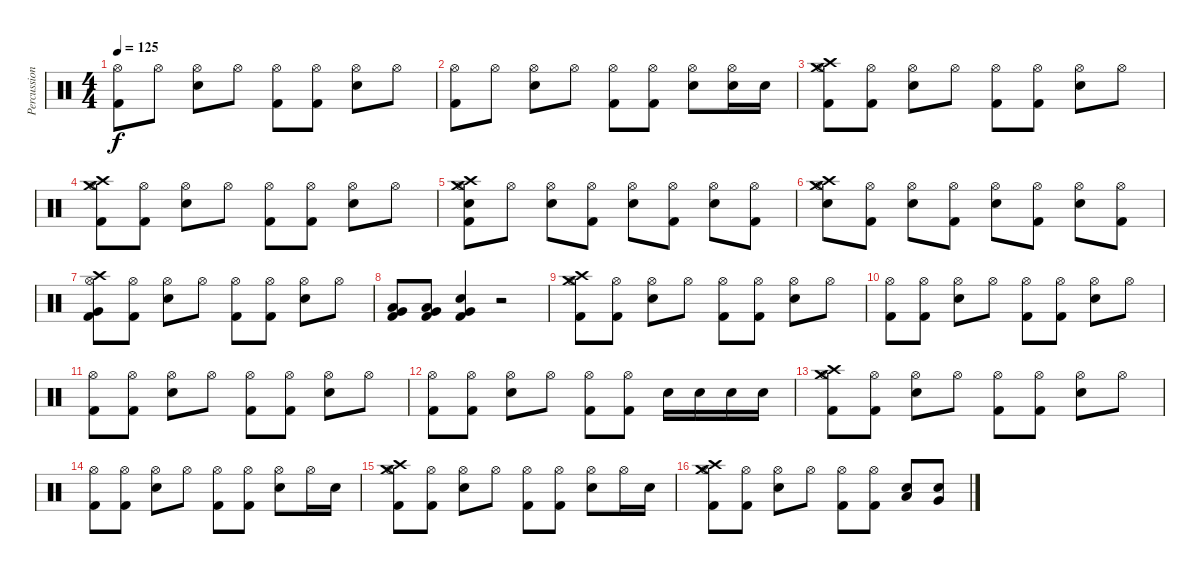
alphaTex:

\track ("Percussions" "Percussion") {instrument percussion}
\staff {score}
\articulation defaults
\ts (4 4)
\tempo 125
\clef neutral
\ks c
("Hi-Hat (open)" "Kick (hit) 2").8{dy f} "Hi-Hat (open)".8 ("Hi-Hat (open)" "Electric Snare (hit)").8 "Hi-Hat (open)".8 ("Hi-Hat (open)" "Kick (hit) 2").8 ("Hi-Hat (open)" "Kick (hit) 2").8 ("Hi-Hat (open)" "Electric Snare (hit)").8 "Hi-Hat (open)".8 |
("Hi-Hat (open)" "Kick (hit) 2").8 "Hi-Hat (open)".8 ("Hi-Hat (open)" "Electric Snare (hit)").8 "Hi-Hat (open)".8 ("Hi-Hat (open)" "Kick (hit) 2").8 ("Hi-Hat (open)" "Kick (hit) 2").8 ("Hi-Hat (open)" "Electric Snare (hit)").8 ("Hi-Hat (open)" "Electric Snare (hit)").16 "Electric Snare (hit)".16 |
("Hi-Hat (open)" "Crash high (hit)" "Crash medium (hit)" "Kick (hit) 2").8 ("Hi-Hat (open)" "Kick (hit) 2").8 ("Hi-Hat (open)" "Electric Snare (hit)").8 "Hi-Hat (open)".8 ("Hi-Hat (open)" "Kick (hit) 2").8 ("Hi-Hat (open)" "Kick (hit) 2").8 ("Hi-Hat (open)" "Electric Snare (hit)").8 "Hi-Hat (open)".8 |
("Hi-Hat (open)" "Crash high (hit)" "Crash medium (hit)" "Kick (hit) 2").8 ("Hi-Hat (open)" "Kick (hit) 2").8 ("Hi-Hat (open)" "Electric Snare (hit)").8 "Hi-Hat (open)".8 ("Hi-Hat (open)" "Kick (hit) 2").8 ("Hi-Hat (open)" "Kick (hit) 2").8 ("Hi-Hat (open)" "Electric Snare (hit)").8 "Hi-Hat (open)".8 |
("Hi-Hat (open)" "Crash high (hit)" "Crash medium (hit)" "Electric Snare (hit)" "Kick (hit) 2").8 "Hi-Hat (open)".8 ("Hi-Hat (open)" "Electric Snare (hit)").8 ("Hi-Hat (open)" "Kick (hit) 2").8 ("Hi-Hat (open)" "Electric Snare (hit)").8 ("Hi-Hat (open)" "Kick (hit) 2").8 ("Hi-Hat (open)" "Electric Snare (hit)").8 ("Hi-Hat (open)" "Kick (hit) 2").8 |
("Hi-Hat (open)" "Crash high (hit)" "Crash medium (hit)" "Electric Snare (hit)").8 ("Hi-Hat (open)" "Kick (hit) 2").8 ("Hi-Hat (open)" "Electric Snare (hit)").8 ("Hi-Hat (open)" "Kick (hit) 2").8 ("Hi-Hat (open)" "Electric Snare (hit)").8 ("Hi-Hat (open)" "Kick (hit) 2").8 ("Hi-Hat (open)" "Electric Snare (hit)").8 ("Hi-Hat (open)" "Kick (hit) 2").8 |
("Hi-Hat (open)" "Crash high (hit)" "Very Low Tom (hit)" "Kick (hit) 2").8 ("Hi-Hat (open)" "Kick (hit) 2").8 ("Hi-Hat (open)" "Electric Snare (hit)").8 "Hi-Hat (open)".8 ("Hi-Hat (open)" "Kick (hit) 2").8 ("Hi-Hat (open)" "Kick (hit) 2").8 ("Hi-Hat (open)" "Electric Snare (hit)").8 "Hi-Hat (open)".8 |
("Very Low Tom (hit)" "Low Tom (hit)" "Kick (hit) 2").8 ("Very Low Tom (hit)" "Low Tom (hit)" "Kick (hit) 2").8 ("Very Low Tom (hit)" "Electric Snare (hit)" "Kick (hit) 2").4 r.2 |
("Hi-Hat (open)" "Crash high (hit)" "Crash medium (hit)" "Kick (hit) 2").8 ("Hi-Hat (open)" "Kick (hit) 2").8 ("Hi-Hat (open)" "Electric Snare (hit)").8 "Hi-Hat (open)".8 ("Hi-Hat (open)" "Kick (hit) 2").8 ("Hi-Hat (open)" "Kick (hit) 2").8 ("Hi-Hat (open)" "Electric Snare (hit)").8 "Hi-Hat (open)".8 |
("Hi-Hat (open)" "Kick (hit) 2").8 ("Hi-Hat (open)" "Kick (hit) 2").8 ("Hi-Hat (open)" "Electric Snare (hit)").8 "Hi-Hat (open)".8 ("Hi-Hat (open)" "Kick (hit) 2").8 ("Hi-Hat (open)" "Kick (hit) 2").8 ("Hi-Hat (open)" "Electric Snare (hit)").8 "Hi-Hat (open)".8 |
("Hi-Hat (open)" "Kick (hit) 2").8 ("Hi-Hat (open)" "Kick (hit) 2").8 ("Hi-Hat (open)" "Electric Snare (hit)").8 "Hi-Hat (open)".8 ("Hi-Hat (open)" "Kick (hit) 2").8 ("Hi-Hat (open)" "Kick (hit) 2").8 ("Hi-Hat (open)" "Electric Snare (hit)").8 "Hi-Hat (open)".8 |
("Hi-Hat (open)" "Kick (hit) 2").8 ("Hi-Hat (open)" "Kick (hit) 2").8 ("Hi-Hat (open)" "Electric Snare (hit)").8 "Hi-Hat (open)".8 ("Hi-Hat (open)" "Kick (hit) 2").8 ("Hi-Hat (open)" "Kick (hit) 2").8 "Electric Snare (hit)".16 "Electric Snare (hit)".16 "Electric Snare (hit)".16 "Electric Snare (hit)".16 |
("Hi-Hat (open)" "Crash high (hit)" "Crash medium (hit)" "Kick (hit) 2").8 ("Hi-Hat (open)" "Kick (hit) 2").8 ("Hi-Hat (open)" "Electric Snare (hit)").8 "Hi-Hat (open)".8 ("Hi-Hat (open)" "Kick (hit) 2").8 ("Hi-Hat (open)" "Kick (hit) 2").8 ("Hi-Hat (open)" "Electric Snare (hit)").8 "Hi-Hat (open)".8 |
("Hi-Hat (open)" "Kick (hit) 2").8 ("Hi-Hat (open)" "Kick (hit) 2").8 ("Hi-Hat (open)" "Electric Snare (hit)").8 "Hi-Hat (open)".8 ("Hi-Hat (open)" "Kick (hit) 2").8 ("Hi-Hat (open)" "Kick (hit) 2").8 ("Hi-Hat (open)" "Electric Snare (hit)").8 "Hi-Hat (open)".16 "Electric Snare (hit)".16 |
("Hi-Hat (open)" "Crash high (hit)" "Crash medium (hit)" "Kick (hit) 2").8 ("Hi-Hat (open)" "Kick (hit) 2").8 ("Hi-Hat (open)" "Electric Snare (hit)").8 "Hi-Hat (open)".8 ("Hi-Hat (open)" "Kick (hit) 2").8 ("Hi-Hat (open)" "Kick (hit) 2").8 ("Hi-Hat (open)" "Electric Snare (hit)").8 "Hi-Hat (open)".16 "Electric Snare (hit)".16 |
("Hi-Hat (open)" "Crash high (hit)" "Crash medium (hit)" "Kick (hit) 2").8 ("Hi-Hat (open)" "Kick (hit) 2").8 ("Hi-Hat (open)" "Electric Snare (hit)").8 "Hi-Hat (open)".8 ("Hi-Hat (open)" "Kick (hit) 2").8 ("Hi-Hat (open)" "Kick (hit) 2").8 ("Low Tom (hit)" "Electric Snare (hit)").8 ("Very Low Tom (hit)" "Electric Snare (hit)").8
